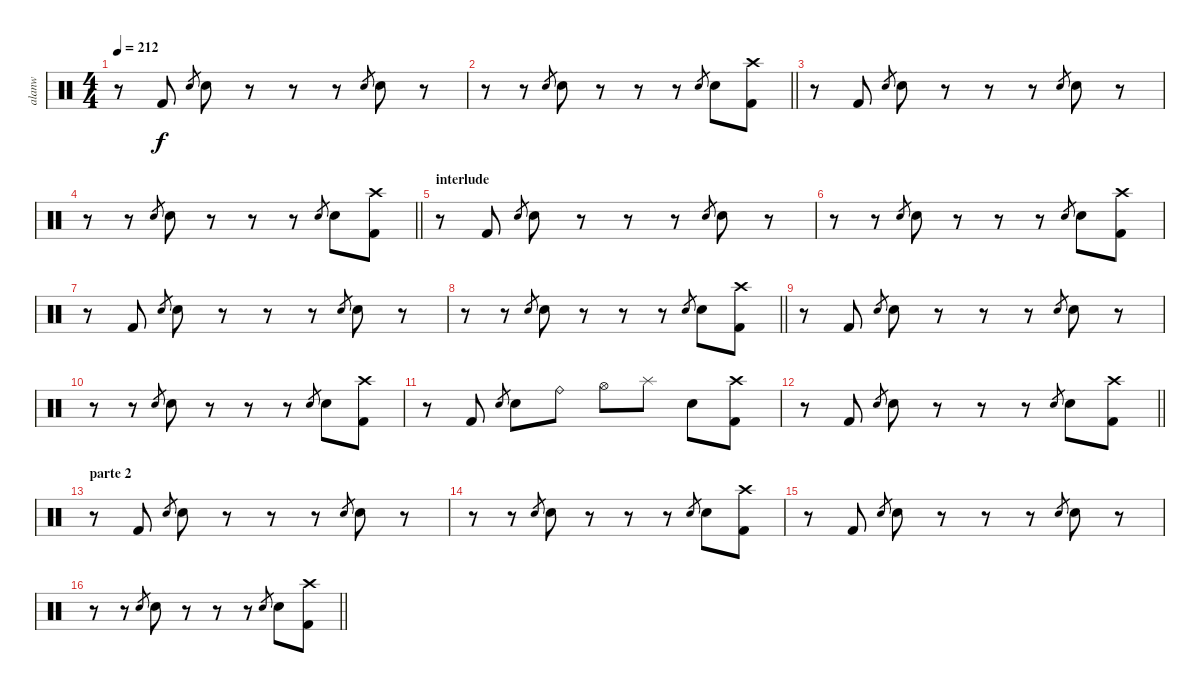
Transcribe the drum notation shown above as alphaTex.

\track ("alanw" "alanw") {instrument percussion}
\staff {score}
\articulation defaults
\ts (4 4)
\tempo 212
\clef neutral
\ks c
r.8{dy f} "Kick (hit) 2".8 "Electric Snare (hit)".8{gr} "Electric Snare (hit)".8 r.8 r.8 r.8 "Electric Snare (hit)".8{gr} "Electric Snare (hit)".8 r.8 |
\barLineRight lightlight
r.8 r.8 "Electric Snare (hit)".8{gr} "Electric Snare (hit)".8 r.8 r.8 r.8 "Electric Snare (hit)".8{gr} "Electric Snare (hit)".8 ("Crash high (hit)" "Kick (hit) 2").8 |
r.8 "Kick (hit) 2".8 "Electric Snare (hit)".8{gr} "Electric Snare (hit)".8 r.8 r.8 r.8 "Electric Snare (hit)".8{gr} "Electric Snare (hit)".8 r.8 |
\barLineRight lightlight
r.8 r.8 "Electric Snare (hit)".8{gr} "Electric Snare (hit)".8 r.8 r.8 r.8 "Electric Snare (hit)".8{gr} "Electric Snare (hit)".8 ("Crash high (hit)" "Kick (hit) 2").8 |
\section ("" "interlude")
r.8 "Kick (hit) 2".8 "Electric Snare (hit)".8{gr} "Electric Snare (hit)".8 r.8 r.8 r.8 "Electric Snare (hit)".8{gr} "Electric Snare (hit)".8 r.8 |
r.8 r.8 "Electric Snare (hit)".8{gr} "Electric Snare (hit)".8 r.8 r.8 r.8 "Electric Snare (hit)".8{gr} "Electric Snare (hit)".8 ("Crash high (hit)" "Kick (hit) 2").8 |
r.8 "Kick (hit) 2".8 "Electric Snare (hit)".8{gr} "Electric Snare (hit)".8 r.8 r.8 r.8 "Electric Snare (hit)".8{gr} "Electric Snare (hit)".8 r.8 |
\barLineRight lightlight
r.8 r.8 "Electric Snare (hit)".8{gr} "Electric Snare (hit)".8 r.8 r.8 r.8 "Electric Snare (hit)".8{gr} "Electric Snare (hit)".8 ("Crash high (hit)" "Kick (hit) 2").8 |
r.8 "Kick (hit) 2".8 "Electric Snare (hit)".8{gr} "Electric Snare (hit)".8 r.8 r.8 r.8 "Electric Snare (hit)".8{gr} "Electric Snare (hit)".8 r.8 |
r.8 r.8 "Electric Snare (hit)".8{gr} "Electric Snare (hit)".8 r.8 r.8 r.8 "Electric Snare (hit)".8{gr} "Electric Snare (hit)".8 ("Crash high (hit)" "Kick (hit) 2").8 |
r.8 "Kick (hit) 2".8 "Electric Snare (hit)".8{gr} "Electric Snare (hit)".8 "Ride (bell)".8 "Hi-Hat (open)".8 "Splash (hit)".8 "Electric Snare (hit)".8 ("Crash high (hit)" "Kick (hit) 2").8 |
\barLineRight lightlight
r.8 "Kick (hit) 2".8 "Electric Snare (hit)".8{gr} "Electric Snare (hit)".8 r.8 r.8 r.8 "Electric Snare (hit)".8{gr} "Electric Snare (hit)".8 ("Crash high (hit)" "Kick (hit) 2").8 |
\section ("" "parte 2")
r.8 "Kick (hit) 2".8 "Electric Snare (hit)".8{gr} "Electric Snare (hit)".8 r.8 r.8 r.8 "Electric Snare (hit)".8{gr} "Electric Snare (hit)".8 r.8 |
r.8 r.8 "Electric Snare (hit)".8{gr} "Electric Snare (hit)".8 r.8 r.8 r.8 "Electric Snare (hit)".8{gr} "Electric Snare (hit)".8 ("Crash high (hit)" "Kick (hit) 2").8 |
r.8 "Kick (hit) 2".8 "Electric Snare (hit)".8{gr} "Electric Snare (hit)".8 r.8 r.8 r.8 "Electric Snare (hit)".8{gr} "Electric Snare (hit)".8 r.8 |
\barLineRight lightlight
r.8 r.8 "Electric Snare (hit)".8{gr} "Electric Snare (hit)".8 r.8 r.8 r.8 "Electric Snare (hit)".8{gr} "Electric Snare (hit)".8 ("Crash high (hit)" "Kick (hit) 2").8
